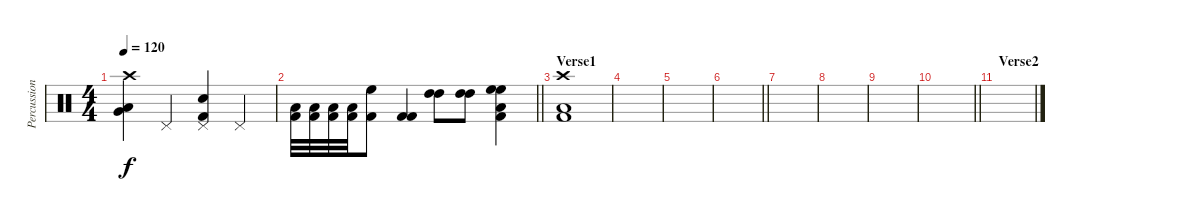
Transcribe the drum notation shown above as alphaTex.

\track ("Percussion" "Percussion") {instrument percussion}
\staff {score}
\articulation defaults
\ts (4 4)
\tempo 120
\clef neutral
\ks c
("Crash high (hit)" "Low Floor Tom (hit)" "Very Low Tom (hit)").4{dy f} "Pedal Hi-Hat (hit)".4 ("Pedal Hi-Hat (hit)" "Snare (hit) 2" "Kick (hit) 2").4 "Pedal Hi-Hat (hit)".4 |
\barLineRight lightlight
("Low Floor Tom (hit)" "Kick (hit) 2").32 ("Low Floor Tom (hit)" "Kick (hit) 2").32 ("Low Floor Tom (hit)" "Kick (hit) 2").32 ("Low Floor Tom (hit)" "Kick (hit) 2").32 ("High Floor Tom (hit)" "Kick (hit) 2").8 ("Kick (hit) 2" "Kick (hit) 2").4 ("High Tom (hit)" "High Tom (hit)").8 ("High Tom (hit)" "High Tom (hit)").8 ("Low Floor Tom (hit)" "High Floor Tom (hit)" "High Floor Tom (hit)" "Kick (hit) 2").4 |
\section ("" "Verse1")
("Crash high (hit)" "Low Floor Tom (hit)" "Kick (hit) 2").1 |
|
|
\barLineRight lightlight
|
|
|
|
\barLineRight lightlight
|
\section ("" "Verse2")
